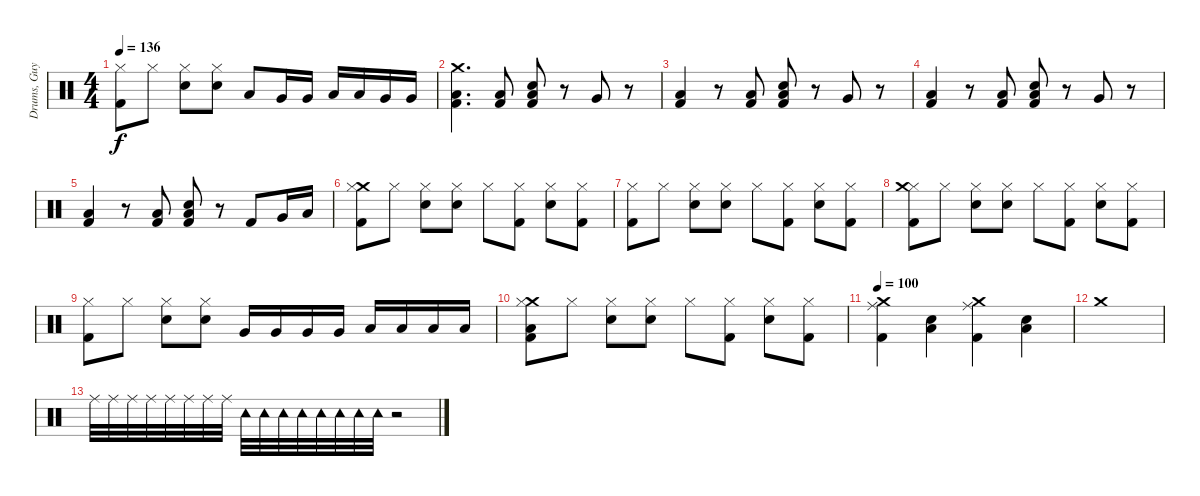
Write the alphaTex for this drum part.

\track ("Drums, Guy" "Drums, Guy") {instrument percussion}
\staff {score}
\articulation defaults
\ts (4 4)
\tempo 136
\clef neutral
\ks c
("Hi-Hat (closed)" "Kick (hit) 2").8{dy f} "Hi-Hat (closed)".8 ("Electric Snare (hit)" "Hi-Hat (closed)").8 ("Electric Snare (hit)" "Hi-Hat (closed)").8 "Low Floor Tom (hit)".8 "Very Low Tom (hit)".16 "Very Low Tom (hit)".16 "Low Tom (hit)".16 "Low Tom (hit)".16 "Very Low Tom (hit)".16 "Very Low Tom (hit)".16 |
("Low Floor Tom (hit)" "Kick (hit) 2" "Crash medium (hit)").4{d} ("Kick (hit) 2" "Low Floor Tom (hit)").8 ("Kick (hit) 2" "Low Floor Tom (hit)" "Electric Snare (hit)").8 r.8 "Very Low Tom (hit)".8 r.8 |
("Kick (hit) 2" "Low Floor Tom (hit)").4 r.8 ("Kick (hit) 2" "Low Floor Tom (hit)").8 ("Kick (hit) 2" "Low Floor Tom (hit)" "Electric Snare (hit)").8 r.8 "Very Low Tom (hit)".8 r.8 |
("Kick (hit) 2" "Low Floor Tom (hit)").4 r.8 ("Kick (hit) 2" "Low Floor Tom (hit)").8 ("Kick (hit) 2" "Low Floor Tom (hit)" "Electric Snare (hit)").8 r.8 "Very Low Tom (hit)".8 r.8 |
("Kick (hit) 2" "Low Floor Tom (hit)").4 r.8 ("Kick (hit) 2" "Low Floor Tom (hit)").8 ("Kick (hit) 2" "Low Floor Tom (hit)" "Electric Snare (hit)").8 r.8 "Kick (hit) 2".8 "Very Low Tom (hit)".16 "Low Floor Tom (hit)".16 |
("Crash medium (hit)" "Kick (hit) 2" "Hi-Hat (closed)").8 "Hi-Hat (closed)".8 ("Electric Snare (hit)" "Hi-Hat (closed)").8 ("Electric Snare (hit)" "Hi-Hat (closed)").8 "Hi-Hat (closed)".8 ("Kick (hit) 2" "Hi-Hat (closed)").8 ("Electric Snare (hit)" "Hi-Hat (closed)").8 ("Kick (hit) 2" "Hi-Hat (closed)").8 |
("Kick (hit) 2" "Hi-Hat (closed)").8 "Hi-Hat (closed)".8 ("Electric Snare (hit)" "Hi-Hat (closed)").8 ("Electric Snare (hit)" "Hi-Hat (closed)").8 "Hi-Hat (closed)".8 ("Kick (hit) 2" "Hi-Hat (closed)").8 ("Electric Snare (hit)" "Hi-Hat (closed)").8 ("Kick (hit) 2" "Hi-Hat (closed)").8 |
("Kick (hit) 2" "Hi-Hat (closed)" "Crash medium (hit)").8 "Hi-Hat (closed)".8 ("Electric Snare (hit)" "Hi-Hat (closed)").8 ("Electric Snare (hit)" "Hi-Hat (closed)").8 "Hi-Hat (closed)".8 ("Kick (hit) 2" "Hi-Hat (closed)").8 ("Electric Snare (hit)" "Hi-Hat (closed)").8 ("Kick (hit) 2" "Hi-Hat (closed)").8 |
("Kick (hit) 2" "Hi-Hat (closed)").8 "Hi-Hat (closed)".8 ("Electric Snare (hit)" "Hi-Hat (closed)").8 ("Electric Snare (hit)" "Hi-Hat (closed)").8 "Very Low Tom (hit)".16 "Very Low Tom (hit)".16 "Very Low Tom (hit)".16 "Very Low Tom (hit)".16 "Low Floor Tom (hit)".16 "Low Floor Tom (hit)".16 "Low Floor Tom (hit)".16 "Low Floor Tom (hit)".16 |
("Crash medium (hit)" "Kick (hit) 2" "Hi-Hat (closed)" "Low Floor Tom (hit)").8 "Hi-Hat (closed)".8 ("Electric Snare (hit)" "Hi-Hat (closed)").8 ("Electric Snare (hit)" "Hi-Hat (closed)").8 "Hi-Hat (closed)".8 ("Kick (hit) 2" "Hi-Hat (closed)").8 ("Electric Snare (hit)" "Hi-Hat (closed)").8 ("Kick (hit) 2" "Hi-Hat (closed)").8 |
\tempo 100
("Crash medium (hit)" "Ride (middle)" "Kick (hit) 2").4 ("Electric Snare (hit)" "Low Floor Tom (hit)").4 ("Kick (hit) 2" "Ride (middle)" "Crash medium (hit)").4 ("Electric Snare (hit)" "Low Floor Tom (hit)").4 |
"Crash medium (hit)".1 |
"Ride (middle)".32 "Ride (middle)".32 "Ride (middle)".32 "Ride (middle)".32 "Ride (middle)".32 "Ride (middle)".32 "Ride (middle)".32 "Ride (middle)".32 "Tambourine (hit)".32 "Tambourine (hit)".32 "Tambourine (hit)".32 "Tambourine (hit)".32 "Tambourine (hit)".32 "Tambourine (hit)".32 "Tambourine (hit)".32 "Tambourine (hit)".32 r.2
